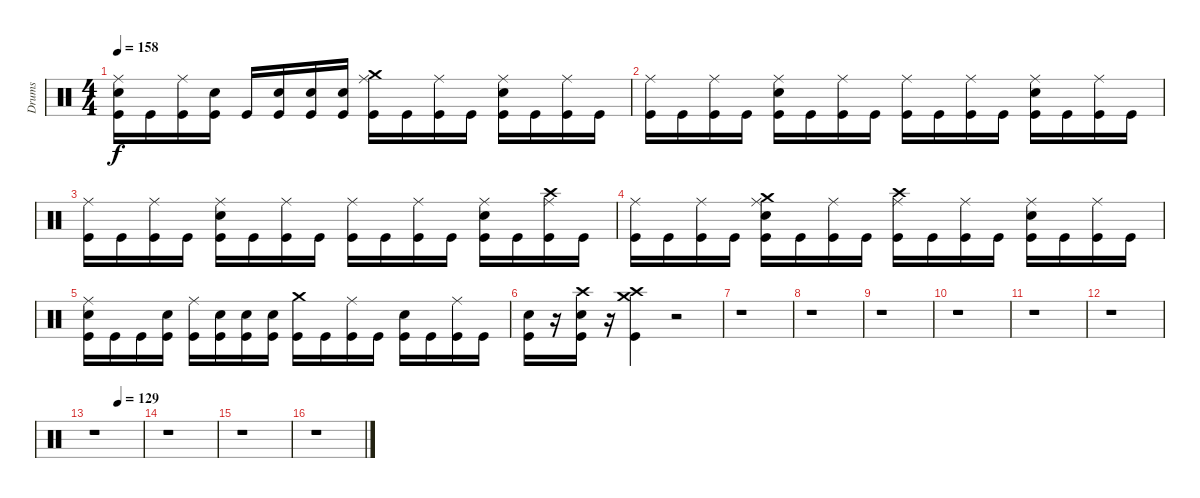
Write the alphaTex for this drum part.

\track ("Drums" "Drums") {instrument percussion}
\staff {score}
\articulation defaults
\ts (4 4)
\tempo 158
\clef neutral
\ks c
("Ride (middle)" "Kick (hit)" "Electric Snare (hit)").16{dy f} "Kick (hit)".16 ("Ride (middle)" "Kick (hit)").16 ("Electric Snare (hit)" "Kick (hit)").16 "Kick (hit)".16 ("Electric Snare (hit)" "Kick (hit)").16 ("Electric Snare (hit)" "Kick (hit)").16 ("Electric Snare (hit)" "Kick (hit)").16 ("Crash medium (hit)" "Ride (middle)" "Kick (hit)").16 "Kick (hit)".16 ("Ride (middle)" "Kick (hit)").16 "Kick (hit)".16 ("Ride (middle)" "Electric Snare (hit)" "Kick (hit)").16 "Kick (hit)".16 ("Ride (middle)" "Kick (hit)").16 "Kick (hit)".16 |
("Ride (middle)" "Kick (hit)").16 "Kick (hit)".16 ("Ride (middle)" "Kick (hit)").16 "Kick (hit)".16 ("Ride (middle)" "Electric Snare (hit)" "Kick (hit)").16 "Kick (hit)".16 ("Ride (middle)" "Kick (hit)").16 "Kick (hit)".16 ("Ride (middle)" "Kick (hit)").16 "Kick (hit)".16 ("Ride (middle)" "Kick (hit)").16 "Kick (hit)".16 ("Ride (middle)" "Electric Snare (hit)" "Kick (hit)").16 "Kick (hit)".16 ("Ride (middle)" "Kick (hit)").16 "Kick (hit)".16 |
("Ride (middle)" "Kick (hit)").16 "Kick (hit)".16 ("Ride (middle)" "Kick (hit)").16 "Kick (hit)".16 ("Ride (middle)" "Electric Snare (hit)" "Kick (hit)").16 "Kick (hit)".16 ("Ride (middle)" "Kick (hit)").16 "Kick (hit)".16 ("Ride (middle)" "Kick (hit)").16 "Kick (hit)".16 ("Ride (middle)" "Kick (hit)").16 "Kick (hit)".16 ("Ride (middle)" "Electric Snare (hit)" "Kick (hit)").16 "Kick (hit)".16 ("Crash high (hit)" "Ride (middle)" "Kick (hit)").16 "Kick (hit)".16 |
("Ride (middle)" "Kick (hit)").16 "Kick (hit)".16 ("Ride (middle)" "Kick (hit)").16 "Kick (hit)".16 ("Crash medium (hit)" "Ride (middle)" "Electric Snare (hit)" "Kick (hit)").16 "Kick (hit)".16 ("Ride (middle)" "Kick (hit)").16 "Kick (hit)".16 ("Crash high (hit)" "Ride (middle)" "Kick (hit)").16 "Kick (hit)".16 ("Ride (middle)" "Kick (hit)").16 "Kick (hit)".16 ("Ride (middle)" "Electric Snare (hit)" "Kick (hit)").16 "Kick (hit)".16 ("Ride (middle)" "Kick (hit)").16 "Kick (hit)".16 |
("Ride (middle)" "Electric Snare (hit)" "Kick (hit)").16 "Kick (hit)".16 "Kick (hit)".16 ("Electric Snare (hit)" "Kick (hit)").16 ("Ride (middle)" "Kick (hit)").16 ("Electric Snare (hit)" "Kick (hit)").16 ("Electric Snare (hit)" "Kick (hit)").16 ("Electric Snare (hit)" "Kick (hit)").16 ("Crash medium (hit)" "Kick (hit)").16 "Kick (hit)".16 ("Ride (middle)" "Kick (hit)").16 "Kick (hit)".16 ("Electric Snare (hit)" "Kick (hit)").16 "Kick (hit)".16 ("Ride (middle)" "Kick (hit)").16 "Kick (hit)".16 |
("Electric Snare (hit)" "Kick (hit)").16 r.16 ("Electric Snare (hit)" "Crash high (hit)" "Kick (hit)").16 r.16 ("Crash high (hit)" "Crash medium (hit)" "Kick (hit)").4 r.2 |
r.1 |
r.1 |
r.1 |
r.1 |
r.1 |
r.1 |
\tempo (129 0.5)
r.1 |
r.1 |
r.1 |
r.1
